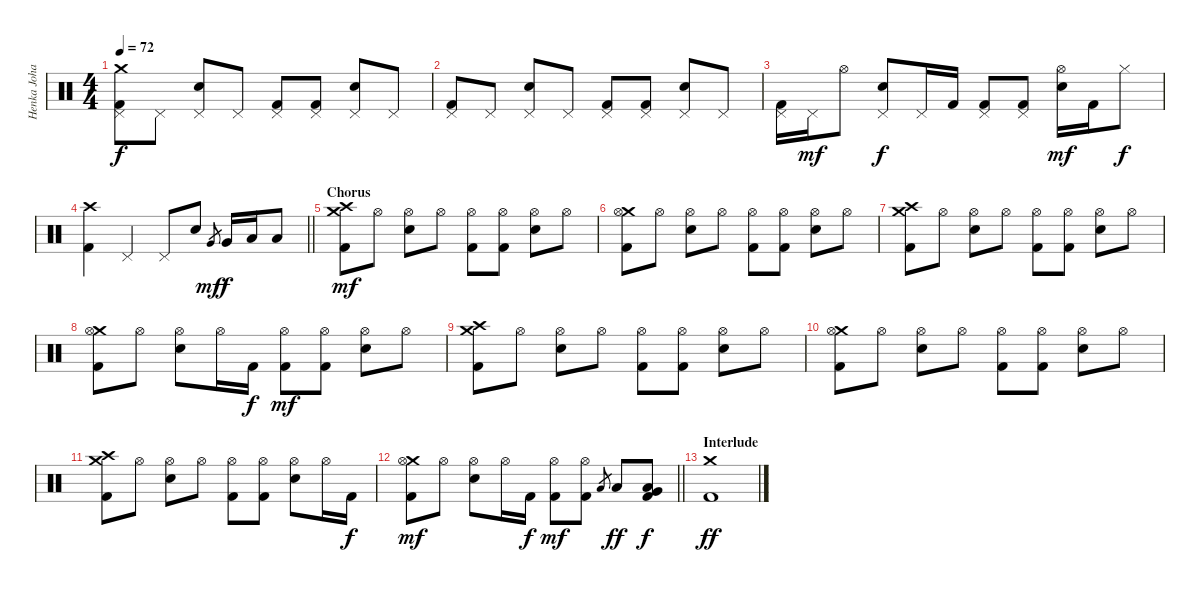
\track ("Henka Johansson" "Henka Joha") {instrument percussion}
\staff {score}
\articulation defaults
\ts (4 4)
\tempo 72
\clef neutral
\ks c
("Crash medium (hit)" "Pedal Hi-Hat (hit)" "Kick (hit) 2").8{dy f} "Pedal Hi-Hat (hit)".8 ("Pedal Hi-Hat (hit)" "Electric Snare (hit)").8 "Pedal Hi-Hat (hit)".8 ("Pedal Hi-Hat (hit)" "Kick (hit) 2").8 ("Pedal Hi-Hat (hit)" "Kick (hit) 2").8 ("Pedal Hi-Hat (hit)" "Electric Snare (hit)").8 "Pedal Hi-Hat (hit)".8 |
("Pedal Hi-Hat (hit)" "Kick (hit) 2").8 "Pedal Hi-Hat (hit)".8 ("Pedal Hi-Hat (hit)" "Electric Snare (hit)").8 "Pedal Hi-Hat (hit)".8 ("Pedal Hi-Hat (hit)" "Kick (hit) 2").8 ("Pedal Hi-Hat (hit)" "Kick (hit) 2").8 ("Pedal Hi-Hat (hit)" "Electric Snare (hit)").8 "Pedal Hi-Hat (hit)".8 |
("Pedal Hi-Hat (hit)" "Kick (hit) 2").16 "Pedal Hi-Hat (hit)".16{dy mf} "Hi-Hat (open)".8 ("Pedal Hi-Hat (hit)" "Electric Snare (hit)").8{dy f} "Pedal Hi-Hat (hit)".16 "Kick (hit) 2".16 ("Pedal Hi-Hat (hit)" "Kick (hit) 2").8 ("Pedal Hi-Hat (hit)" "Kick (hit) 2").8 ("Hi-Hat (open)" "Electric Snare (hit)").16{dy mf} "Kick (hit) 2".16 "Hi-Hat (closed)".8{dy f} |
\barLineRight lightlight
("Crash high (hit)" "Kick (hit) 2").4 "Pedal Hi-Hat (hit)".4 "Pedal Hi-Hat (hit)".8 "Electric Snare (hit)".8 "Very Low Tom (hit)".8{gr dy mf} "Very Low Tom (hit)".16{dy f} "Low Tom (hit)".16 "Low Floor Tom (hit)".8 |
\section ("" "Chorus")
("Crash medium (hit)" "Crash high (hit)" "Kick (hit) 2").8{dy mf} "Hi-Hat (open)".8 ("Hi-Hat (open)" "Electric Snare (hit)").8 "Hi-Hat (open)".8 ("Hi-Hat (open)" "Kick (hit) 2").8 ("Hi-Hat (open)" "Kick (hit) 2").8 ("Hi-Hat (open)" "Electric Snare (hit)").8 "Hi-Hat (open)".8 |
("Crash medium (hit)" "Hi-Hat (open)" "Kick (hit) 2").8 "Hi-Hat (open)".8 ("Hi-Hat (open)" "Electric Snare (hit)").8 "Hi-Hat (open)".8 ("Hi-Hat (open)" "Kick (hit) 2").8 ("Hi-Hat (open)" "Kick (hit) 2").8 ("Hi-Hat (open)" "Electric Snare (hit)").8 "Hi-Hat (open)".8 |
("Crash medium (hit)" "Crash high (hit)" "Kick (hit) 2").8 "Hi-Hat (open)".8 ("Hi-Hat (open)" "Electric Snare (hit)").8 "Hi-Hat (open)".8 ("Hi-Hat (open)" "Kick (hit) 2").8 ("Hi-Hat (open)" "Kick (hit) 2").8 ("Hi-Hat (open)" "Electric Snare (hit)").8 "Hi-Hat (open)".8 |
("Crash medium (hit)" "Hi-Hat (open)" "Kick (hit) 2").8 "Hi-Hat (open)".8 ("Hi-Hat (open)" "Electric Snare (hit)").8 "Hi-Hat (open)".16 "Kick (hit) 2".16{dy f} ("Hi-Hat (open)" "Kick (hit) 2").8{dy mf} ("Hi-Hat (open)" "Kick (hit) 2").8 ("Hi-Hat (open)" "Electric Snare (hit)").8 "Hi-Hat (open)".8 |
("Crash medium (hit)" "Crash high (hit)" "Kick (hit) 2").8 "Hi-Hat (open)".8 ("Hi-Hat (open)" "Electric Snare (hit)").8 "Hi-Hat (open)".8 ("Hi-Hat (open)" "Kick (hit) 2").8 ("Hi-Hat (open)" "Kick (hit) 2").8 ("Hi-Hat (open)" "Electric Snare (hit)").8 "Hi-Hat (open)".8 |
("Crash medium (hit)" "Hi-Hat (open)" "Kick (hit) 2").8 "Hi-Hat (open)".8 ("Hi-Hat (open)" "Electric Snare (hit)").8 "Hi-Hat (open)".8 ("Hi-Hat (open)" "Kick (hit) 2").8 ("Hi-Hat (open)" "Kick (hit) 2").8 ("Hi-Hat (open)" "Electric Snare (hit)").8 "Hi-Hat (open)".8 |
("Crash medium (hit)" "Crash high (hit)" "Kick (hit) 2").8 "Hi-Hat (open)".8 ("Hi-Hat (open)" "Electric Snare (hit)").8 "Hi-Hat (open)".8 ("Hi-Hat (open)" "Kick (hit) 2").8 ("Hi-Hat (open)" "Kick (hit) 2").8 ("Hi-Hat (open)" "Electric Snare (hit)").8 "Hi-Hat (open)".16 "Kick (hit) 2".16{dy f} |
\barLineRight lightlight
("Crash medium (hit)" "Hi-Hat (open)" "Kick (hit) 2").8{dy mf} "Hi-Hat (open)".8 ("Hi-Hat (open)" "Electric Snare (hit)").8 "Hi-Hat (open)".16 "Kick (hit) 2".16{dy f} ("Hi-Hat (open)" "Kick (hit) 2").8{dy mf} ("Hi-Hat (open)" "Kick (hit) 2").8 "Low Floor Tom (hit)".8{gr} "Low Floor Tom (hit)".8{dy ff} ("Low Floor Tom (hit)" "Very Low Tom (hit)" "Kick (hit) 2").8{dy f} |
\section ("" "Interlude")
("Crash medium (hit)" "Kick (hit) 2").1{dy ff}
